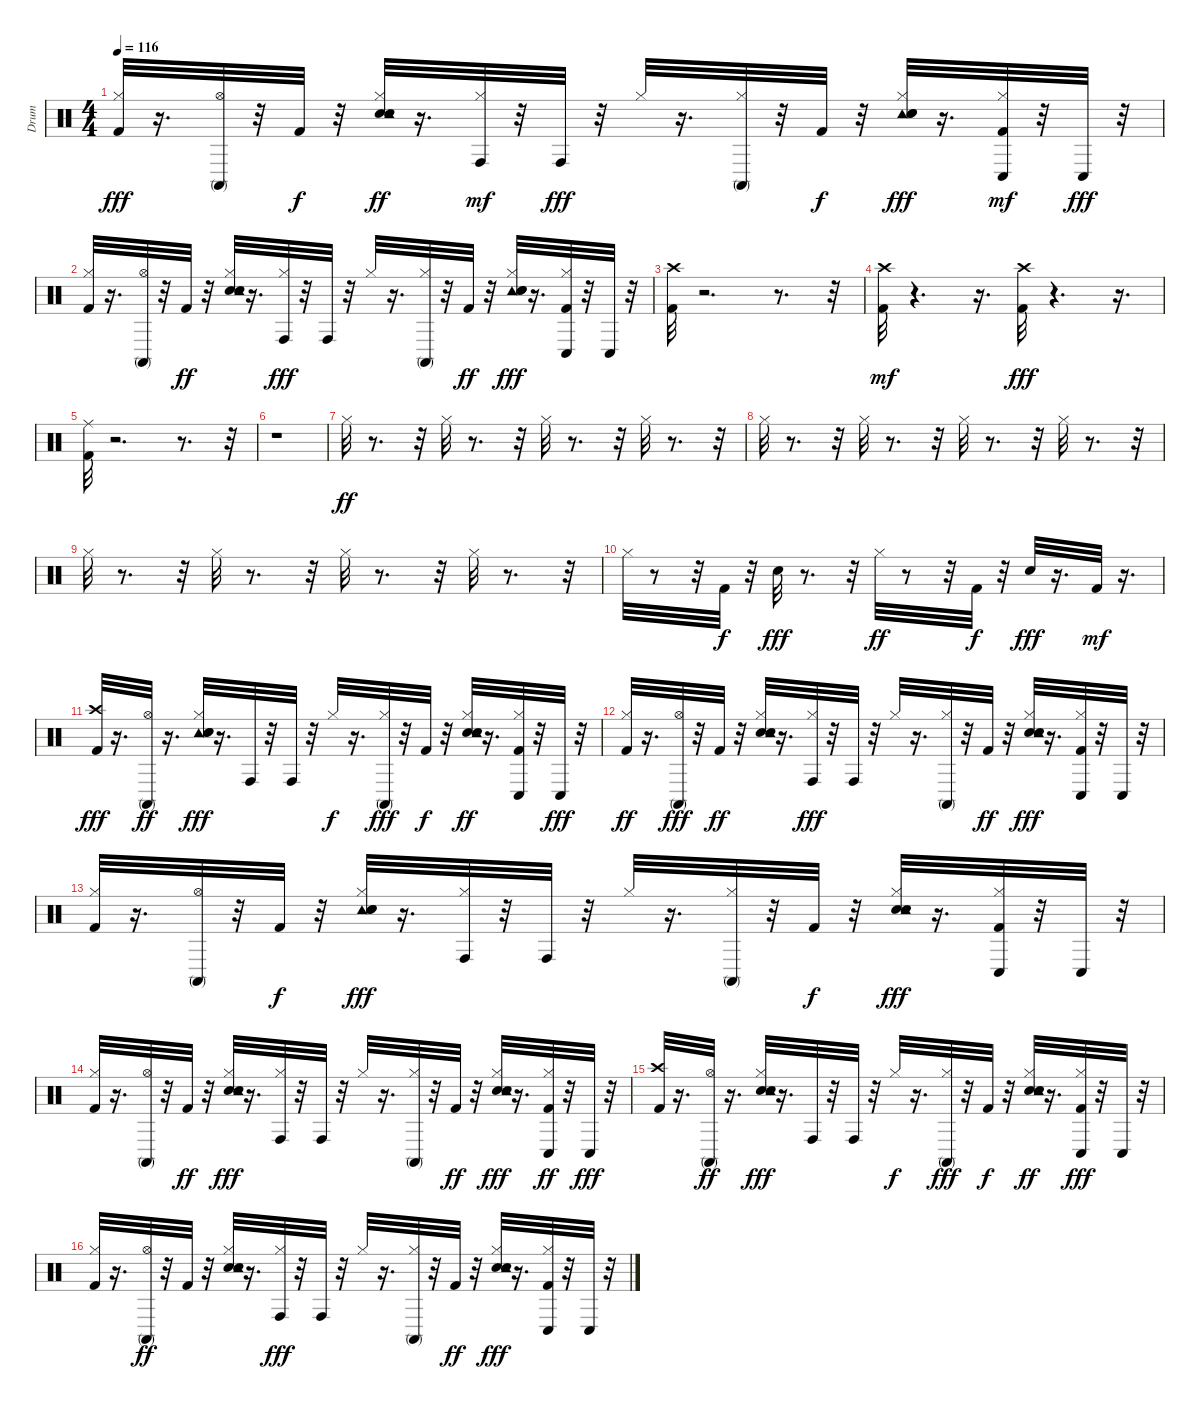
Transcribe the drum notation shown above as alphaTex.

\track ("Drum" "Drum") {instrument percussion}
\staff {score}
\articulation defaults
\ts (4 4)
\tempo 116
\clef neutral
\ks c
("Hi-Hat (closed)" "Kick (hit) 2").32{dy fff} r.16{d} ("Hi-Hat (open)" "Conga high (mute)").32 r.32 "Kick (hit) 2".32{dy f} r.32 ("Electric Snare (hit)" "Tambourine (hit)" "Hand Clap (hit)" "Hi-Hat (closed)").32{dy ff} r.16{d} ("Conga high (hit)" "Hi-Hat (closed)").32{dy mf} r.32 "Conga high (hit)".32{dy fff} r.32 "Hi-Hat (closed)".32 r.16{d} ("Conga high (mute)" "Hi-Hat (closed)").32 r.32 "Kick (hit) 2".32{dy f} r.32 ("Tambourine (hit)" "Hi-Hat (closed)" "Electric Snare (hit)" "Hand Clap (hit)").32{dy fff} r.16{d} ("Conga low (hit)" "Hi-Hat (closed)" "Kick (hit) 2").32{dy mf} r.32 "Conga low (hit)".32{dy fff} r.32 |
("Hi-Hat (closed)" "Kick (hit) 2").32 r.16{d} ("Hi-Hat (open)" "Conga high (mute)").32 r.32 "Kick (hit) 2".32{dy ff} r.32 ("Hi-Hat (closed)" "Electric Snare (hit)" "Hand Clap (hit)" "Tambourine (hit)").32 r.16{d} ("Hi-Hat (closed)" "Conga high (hit)").32{dy fff} r.32 "Conga high (hit)".32 r.32 "Hi-Hat (closed)".32 r.16{d} ("Hi-Hat (closed)" "Conga high (mute)").32 r.32 "Kick (hit) 2".32{dy ff} r.32 ("Hi-Hat (closed)" "Tambourine (hit)" "Hand Clap (hit)" "Electric Snare (hit)").32{dy fff} r.16{d} ("Hi-Hat (closed)" "Kick (hit) 2" "Conga low (hit)").32 r.32 "Conga low (hit)".32 r.32 |
("Crash high (hit)" "Kick (hit) 2").32 r.2{d} r.8{d} r.32 |
("Kick (hit) 2" "Crash high (hit)").32{dy mf} r.4{d} r.16{d} ("Crash high (hit)" "Kick (hit) 2").32{dy fff} r.4{d} r.16{d} |
("Ride (middle)" "Kick (hit) 2").32 r.2{d} r.8{d} r.32 |
r.1 |
"Hi-Hat (closed)".32{dy ff} r.8{d} r.32 "Hi-Hat (closed)".32 r.8{d} r.32 "Hi-Hat (closed)".32 r.8{d} r.32 "Hi-Hat (closed)".32 r.8{d} r.32 |
"Hi-Hat (closed)".32 r.8{d} r.32 "Hi-Hat (closed)".32 r.8{d} r.32 "Hi-Hat (closed)".32 r.8{d} r.32 "Hi-Hat (closed)".32 r.8{d} r.32 |
"Hi-Hat (closed)".32 r.8{d} r.32 "Hi-Hat (closed)".32 r.8{d} r.32 "Hi-Hat (closed)".32 r.8{d} r.32 "Hi-Hat (closed)".32 r.8{d} r.32 |
"Hi-Hat (closed)".32 r.8 r.32 "Kick (hit) 2".32{dy f} r.32 "Electric Snare (hit)".32{dy fff} r.8{d} r.32 "Hi-Hat (closed)".32{dy ff} r.8 r.32 "Kick (hit) 2".32{dy f} r.32 "Electric Snare (hit)".32{dy fff} r.16{d} "Kick (hit) 2".32{dy mf} r.16{d} |
("Kick (hit) 2" "Crash high (hit)").32{dy fff} r.16{d} ("Conga high (mute)" "Hi-Hat (open)").32{dy ff} r.16{d} ("Tambourine (hit)" "Hi-Hat (closed)" "Electric Snare (hit)" "Hand Clap (hit)").32{dy fff} r.16{d} "Conga high (hit)".32 r.32 "Conga high (hit)".32 r.32 "Hi-Hat (closed)".32{dy f} r.16{d} ("Hi-Hat (closed)" "Conga high (mute)").32{dy fff} r.32 "Kick (hit) 2".32{dy f} r.32 ("Hand Clap (hit)" "Electric Snare (hit)" "Tambourine (hit)" "Hi-Hat (closed)").32{dy ff} r.16{d} ("Hi-Hat (closed)" "Conga low (hit)" "Kick (hit) 2").32 r.32 "Conga low (hit)".32{dy fff} r.32 |
("Kick (hit) 2" "Hi-Hat (closed)").32{dy ff} r.16{d} ("Hi-Hat (open)" "Conga high (mute)").32{dy fff} r.32 "Kick (hit) 2".32{dy ff} r.32 ("Hand Clap (hit)" "Electric Snare (hit)" "Hi-Hat (closed)" "Tambourine (hit)").32 r.16{d} ("Hi-Hat (closed)" "Conga high (hit)").32{dy fff} r.32 "Conga high (hit)".32 r.32 "Hi-Hat (closed)".32 r.16{d} ("Conga high (mute)" "Hi-Hat (closed)").32 r.32 "Kick (hit) 2".32{dy ff} r.32 ("Hi-Hat (closed)" "Electric Snare (hit)" "Tambourine (hit)" "Hand Clap (hit)").32{dy fff} r.16{d} ("Kick (hit) 2" "Hi-Hat (closed)" "Conga low (hit)").32 r.32 "Conga low (hit)".32 r.32 |
("Hi-Hat (closed)" "Kick (hit) 2").32 r.16{d} ("Hi-Hat (open)" "Conga high (mute)").32 r.32 "Kick (hit) 2".32{dy f} r.32 ("Tambourine (hit)" "Electric Snare (hit)" "Hi-Hat (closed)" "Hand Clap (hit)").32{dy fff} r.16{d} ("Hi-Hat (closed)" "Conga high (hit)").32 r.32 "Conga high (hit)".32 r.32 "Hi-Hat (closed)".32 r.16{d} ("Conga high (mute)" "Hi-Hat (closed)").32 r.32 "Kick (hit) 2".32{dy f} r.32 ("Hand Clap (hit)" "Electric Snare (hit)" "Tambourine (hit)" "Hi-Hat (closed)").32{dy fff} r.16{d} ("Hi-Hat (closed)" "Conga low (hit)" "Kick (hit) 2").32 r.32 "Conga low (hit)".32 r.32 |
("Kick (hit) 2" "Hi-Hat (closed)").32 r.16{d} ("Hi-Hat (open)" "Conga high (mute)").32 r.32 "Kick (hit) 2".32{dy ff} r.32 ("Hi-Hat (closed)" "Electric Snare (hit)" "Tambourine (hit)" "Hand Clap (hit)").32{dy fff} r.16{d} ("Hi-Hat (closed)" "Conga high (hit)").32 r.32 "Conga high (hit)".32 r.32 "Hi-Hat (closed)".32 r.16{d} ("Hi-Hat (closed)" "Conga high (mute)").32 r.32 "Kick (hit) 2".32{dy ff} r.32 ("Electric Snare (hit)" "Tambourine (hit)" "Hi-Hat (closed)" "Hand Clap (hit)").32{dy fff} r.16{d} ("Conga low (hit)" "Kick (hit) 2" "Hi-Hat (closed)").32{dy ff} r.32 "Conga low (hit)".32{dy fff} r.32 |
("Kick (hit) 2" "Crash high (hit)").32 r.16{d} ("Conga high (mute)" "Hi-Hat (open)").32{dy ff} r.16{d} ("Electric Snare (hit)" "Hand Clap (hit)" "Tambourine (hit)" "Hi-Hat (closed)").32{dy fff} r.16{d} "Conga high (hit)".32 r.32 "Conga high (hit)".32 r.32 "Hi-Hat (closed)".32{dy f} r.16{d} ("Hi-Hat (closed)" "Conga high (mute)").32{dy fff} r.32 "Kick (hit) 2".32{dy f} r.32 ("Hand Clap (hit)" "Hi-Hat (closed)" "Electric Snare (hit)" "Tambourine (hit)").32{dy ff} r.16{d} ("Kick (hit) 2" "Hi-Hat (closed)" "Conga low (hit)").32{dy fff} r.32 "Conga low (hit)".32 r.32 |
("Hi-Hat (closed)" "Kick (hit) 2").32 r.16{d} ("Conga high (mute)" "Hi-Hat (open)").32{dy ff} r.32 "Kick (hit) 2".32 r.32 ("Hand Clap (hit)" "Tambourine (hit)" "Electric Snare (hit)" "Hi-Hat (closed)").32 r.16{d} ("Hi-Hat (closed)" "Conga high (hit)").32{dy fff} r.32 "Conga high (hit)".32 r.32 "Hi-Hat (closed)".32 r.16{d} ("Conga high (mute)" "Hi-Hat (closed)").32 r.32 "Kick (hit) 2".32{dy ff} r.32 ("Hand Clap (hit)" "Hi-Hat (closed)" "Tambourine (hit)" "Electric Snare (hit)").32{dy fff} r.16{d} ("Hi-Hat (closed)" "Kick (hit) 2" "Conga low (hit)").32 r.32 "Conga low (hit)".32 r.32
